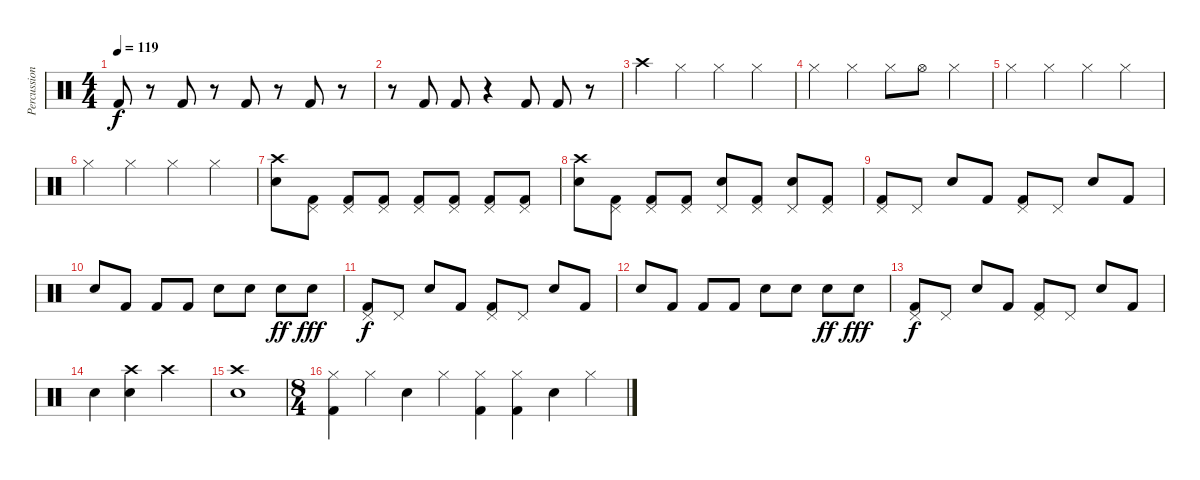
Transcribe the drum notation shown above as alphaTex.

\track ("Percussion" "Percussion") {instrument percussion}
\staff {score}
\articulation defaults
\ts (4 4)
\tempo 119
\clef neutral
\ks c "Kick (hit) 2".8{dy f}
r.8 "Kick (hit) 2".8 r.8 "Kick (hit) 2".8 r.8 "Kick (hit) 2".8 r.8 |
r.8 "Kick (hit) 2".8 "Kick (hit) 2".8 r.4 "Kick (hit) 2".8 "Kick (hit) 2".8 r.8 |
"Crash high (hit)".4 "Hi-Hat (closed)".4 "Hi-Hat (closed)".4 "Hi-Hat (closed)".4 |
"Hi-Hat (closed)".4 "Hi-Hat (closed)".4 "Hi-Hat (closed)".8 "Hi-Hat (open)".8 "Hi-Hat (closed)".4 |
"Hi-Hat (closed)".4 "Hi-Hat (closed)".4 "Hi-Hat (closed)".4 "Hi-Hat (closed)".4 |
"Hi-Hat (closed)".4 "Hi-Hat (closed)".4 "Hi-Hat (closed)".4 "Hi-Hat (closed)".4 |
("Crash high (hit)" "Snare (hit) 2").8 ("Pedal Hi-Hat (hit)" "Kick (hit) 2").8 ("Pedal Hi-Hat (hit)" "Kick (hit) 2").8 ("Pedal Hi-Hat (hit)" "Kick (hit) 2").8 ("Pedal Hi-Hat (hit)" "Kick (hit) 2").8 ("Pedal Hi-Hat (hit)" "Kick (hit) 2").8 ("Pedal Hi-Hat (hit)" "Kick (hit) 2").8 ("Pedal Hi-Hat (hit)" "Kick (hit) 2").8 |
("Crash high (hit)" "Snare (hit) 2").8 ("Pedal Hi-Hat (hit)" "Kick (hit) 2").8 ("Pedal Hi-Hat (hit)" "Kick (hit) 2").8 ("Pedal Hi-Hat (hit)" "Kick (hit) 2").8 ("Pedal Hi-Hat (hit)" "Snare (hit) 2").8 ("Pedal Hi-Hat (hit)" "Kick (hit) 2").8 ("Pedal Hi-Hat (hit)" "Snare (hit) 2").8 ("Pedal Hi-Hat (hit)" "Kick (hit) 2").8 |
("Pedal Hi-Hat (hit)" "Kick (hit) 2").8 "Pedal Hi-Hat (hit)".8 "Snare (hit) 2".8 "Kick (hit) 2".8 ("Pedal Hi-Hat (hit)" "Kick (hit) 2").8 "Pedal Hi-Hat (hit)".8 "Snare (hit) 2".8 "Kick (hit) 2".8 |
"Snare (hit) 2".8 "Kick (hit) 2".8 "Kick (hit) 2".8 "Kick (hit) 2".8 "Snare (hit) 2".8 "Snare (hit) 2".8 "Snare (hit) 2".8{dy ff} "Snare (hit) 2".8{dy fff} |
("Pedal Hi-Hat (hit)" "Kick (hit) 2").8{dy f} "Pedal Hi-Hat (hit)".8 "Snare (hit) 2".8 "Kick (hit) 2".8 ("Pedal Hi-Hat (hit)" "Kick (hit) 2").8 "Pedal Hi-Hat (hit)".8 "Snare (hit) 2".8 "Kick (hit) 2".8 |
"Snare (hit) 2".8 "Kick (hit) 2".8 "Kick (hit) 2".8 "Kick (hit) 2".8 "Snare (hit) 2".8 "Snare (hit) 2".8 "Snare (hit) 2".8{dy ff} "Snare (hit) 2".8{dy fff} |
("Pedal Hi-Hat (hit)" "Kick (hit) 2").8{dy f} "Pedal Hi-Hat (hit)".8 "Snare (hit) 2".8 "Kick (hit) 2".8 ("Pedal Hi-Hat (hit)" "Kick (hit) 2").8 "Pedal Hi-Hat (hit)".8 "Snare (hit) 2".8 "Kick (hit) 2".8 |
"Snare (hit) 2".4 ("Crash high (hit)" "Snare (hit) 2").4 "Crash high (hit)".2 |
("Crash high (hit)" "Snare (hit) 2").1 |
\ts (8 4)
("Hi-Hat (closed)" "Kick (hit) 2").4 "Hi-Hat (closed)".4 "Snare (hit) 2".4 "Hi-Hat (closed)".4 ("Hi-Hat (closed)" "Kick (hit) 2").4 ("Hi-Hat (closed)" "Kick (hit) 2").4 "Snare (hit) 2".4 "Hi-Hat (closed)".4
